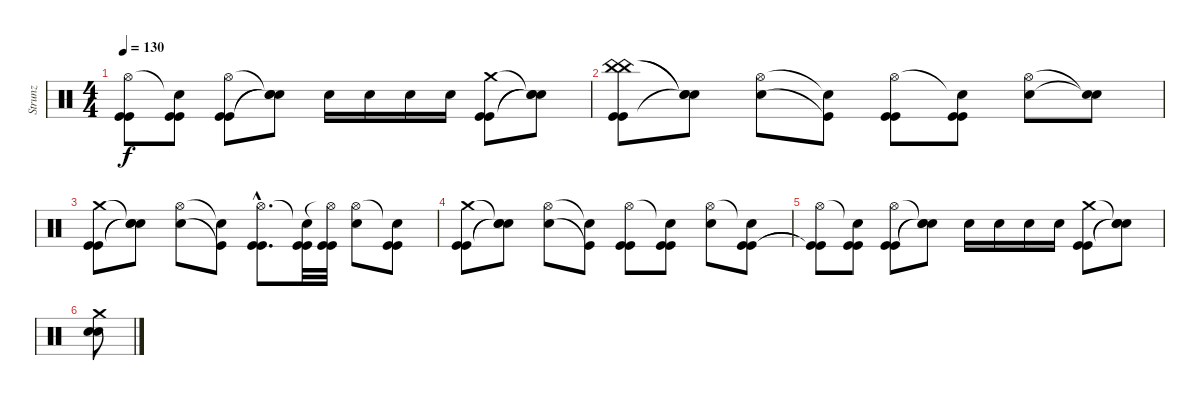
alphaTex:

\track ("Strunz" "Strunz") {instrument percussion}
\staff {score}
\articulation defaults
\ts (4 4)
\tempo 130
\clef neutral
\ks c
("Hi-Hat (open)" "Kick (hit)"{t} "Kick (hit)"{t}).8{dy f} ("Snare (hit)"{t} "Kick (hit)" "Kick (hit)").8 ("Hi-Hat (open)" "Kick (hit)" "Kick (hit)").8 ("Snare (hit)"{t} "Snare (hit)"{t} "Snare (hit)"{t}).8 "Electric Snare (hit)".16 "Electric Snare (hit)".16 "Electric Snare (hit)".16 "Electric Snare (hit)".16 ("Crash medium (hit)" "Kick (hit)" "Kick (hit)").8 ("Snare (hit)"{t} "Snare (hit)"{t} "Snare (hit)"{t}).8 |
("China (hit)" "China (hit)" "Kick (hit)" "Kick (hit)").8 ("Snare (hit)"{t} "Electric Snare (hit)"{t} "Snare (hit)"{t}).8 ("Hi-Hat (open)" "Electric Snare (hit)").8 ("Snare (hit)"{t} "Kick (hit)"{t}).8 ("Hi-Hat (open)" "Kick (hit)" "Kick (hit)").8 ("Snare (hit)"{t} "Kick (hit)" "Kick (hit)").8 ("Hi-Hat (open)" "Electric Snare (hit)").8 ("Snare (hit)"{t} "Snare (hit)"{t}).8 |
("Crash medium (hit)" "Kick (hit)" "Kick (hit)").8 ("Snare (hit)"{t} "Electric Snare (hit)"{t} "Snare (hit)"{t}).8 ("Hi-Hat (open)" "Electric Snare (hit)").8 ("Snare (hit)"{t} "Kick (hit)"{t}).8 ("Hi-Hat (open)"{hac} "Kick (hit)"{hac} "Kick (hit)"{hac}).8{d} ("Snare (hit)"{t} "Kick (hit)" "Kick (hit)").32 ("Hi-Hat (open)"{t} "Kick (hit)" "Kick (hit)").32 ("Hi-Hat (open)" "Electric Snare (hit)").8 ("Snare (hit)"{t} "Kick (hit)" "Kick (hit)").8 |
("Crash medium (hit)" "Kick (hit)" "Kick (hit)").8 ("Snare (hit)"{t} "Electric Snare (hit)"{t} "Snare (hit)"{t}).8 ("Hi-Hat (open)" "Electric Snare (hit)").8 ("Snare (hit)"{t} "Kick (hit)"{t}).8 ("Hi-Hat (open)" "Kick (hit)" "Kick (hit)").8 ("Snare (hit)"{t} "Kick (hit)" "Kick (hit)").8 ("Hi-Hat (open)" "Electric Snare (hit)").8 ("Snare (hit)"{t} "Kick (hit)" "Kick (hit)").8 |
("Hi-Hat (open)" "Kick (hit)"{t} "Kick (hit)"{t}).8 ("Snare (hit)"{t} "Kick (hit)" "Kick (hit)").8 ("Hi-Hat (open)" "Kick (hit)" "Kick (hit)").8 ("Snare (hit)"{t} "Snare (hit)"{t} "Snare (hit)"{t}).8 "Electric Snare (hit)".16 "Electric Snare (hit)".16 "Electric Snare (hit)".16 "Electric Snare (hit)".16 ("Crash medium (hit)" "Kick (hit)" "Kick (hit)").8 ("Snare (hit)"{t} "Snare (hit)"{t} "Snare (hit)"{t}).8 |
("Crash medium (hit)" "Electric Snare (hit)" "Electric Snare (hit)").8
